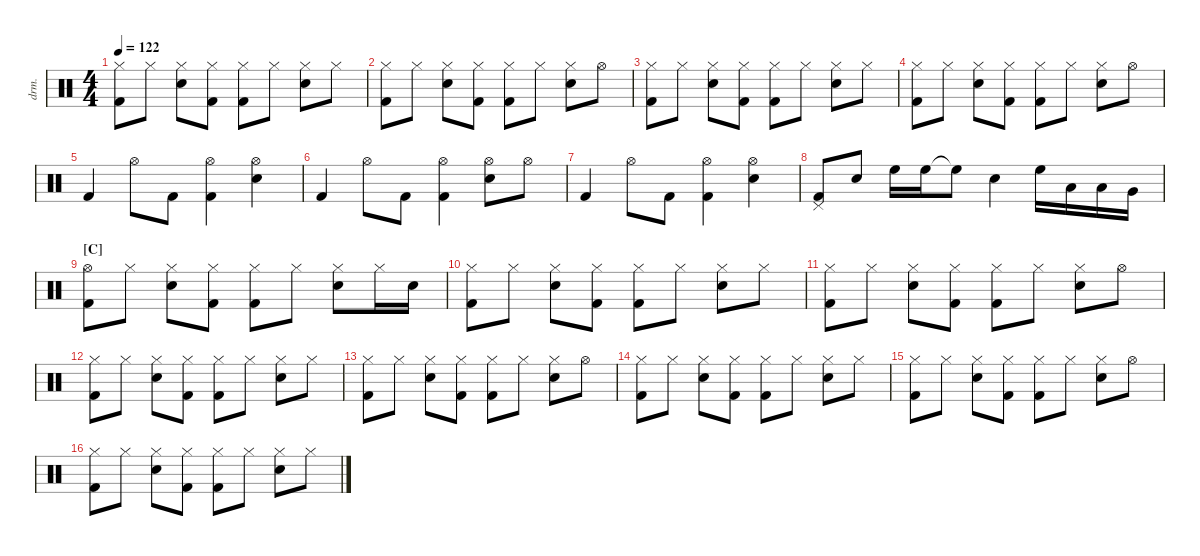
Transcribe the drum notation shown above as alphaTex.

\defaultSystemsLayout 4
\hideDynamics
\bracketExtendMode nobrackets
\track ("Drumkit" "drm.") {defaultSystemsLayout 4 instrument percussion}
\staff {score}
\articulation defaults
\ts (4 4)
\tempo 122
\clef neutral
\ks c
("Hi-Hat (closed)" "Kick (hit) 2").8{dy f} "Hi-Hat (closed)".8 ("Hi-Hat (closed)" "Snare (hit) 2").8 ("Hi-Hat (closed)" "Kick (hit) 2").8 ("Hi-Hat (closed)" "Kick (hit) 2").8 "Hi-Hat (closed)".8 ("Hi-Hat (closed)" "Snare (hit) 2").8 "Hi-Hat (closed)".8 |
("Hi-Hat (closed)" "Kick (hit) 2").8 "Hi-Hat (closed)".8 ("Hi-Hat (closed)" "Snare (hit) 2").8 ("Hi-Hat (closed)" "Kick (hit) 2").8 ("Hi-Hat (closed)" "Kick (hit) 2").8 "Hi-Hat (closed)".8 ("Hi-Hat (closed)" "Snare (hit) 2").8 "Hi-Hat (open)".8 |
("Hi-Hat (closed)" "Kick (hit) 2").8 "Hi-Hat (closed)".8 ("Hi-Hat (closed)" "Snare (hit) 2").8 ("Hi-Hat (closed)" "Kick (hit) 2").8 ("Hi-Hat (closed)" "Kick (hit) 2").8 "Hi-Hat (closed)".8 ("Hi-Hat (closed)" "Snare (hit) 2").8 "Hi-Hat (closed)".8 |
("Hi-Hat (closed)" "Kick (hit) 2").8 "Hi-Hat (closed)".8 ("Hi-Hat (closed)" "Snare (hit) 2").8 ("Hi-Hat (closed)" "Kick (hit) 2").8 ("Hi-Hat (closed)" "Kick (hit) 2").8 "Hi-Hat (closed)".8 ("Hi-Hat (closed)" "Snare (hit) 2").8 "Hi-Hat (open)".8 |
"Kick (hit) 2".4 "Hi-Hat (open)".8 "Kick (hit) 2".8 ("Hi-Hat (open)" "Kick (hit) 2").4 ("Hi-Hat (open)" "Snare (hit) 2").4 |
"Kick (hit) 2".4 "Hi-Hat (open)".8 "Kick (hit) 2".8 ("Hi-Hat (open)" "Kick (hit) 2").4 ("Hi-Hat (open)" "Snare (hit) 2").8 "Hi-Hat (open)".8 |
"Kick (hit) 2".4 "Hi-Hat (open)".8 "Kick (hit) 2".8 ("Hi-Hat (open)" "Kick (hit) 2").4 ("Hi-Hat (open)" "Snare (hit) 2").4 |
("Pedal Hi-Hat (hit)" "Kick (hit) 2").8 "Snare (hit) 2".8 "High Floor Tom (hit)".16 "High Floor Tom (hit)".16 "High Floor Tom (hit)"{t}.8 "Snare (hit) 2".4 "High Floor Tom (hit)".16 "Low Tom (hit)".16 "Low Tom (hit)".16 "Very Low Tom (hit)".16 |
\section ("C" "")
("Hi-Hat (open)" "Kick (hit) 2").8 "Hi-Hat (closed)".8 ("Hi-Hat (closed)" "Snare (hit) 2").8 ("Hi-Hat (closed)" "Kick (hit) 2").8 ("Hi-Hat (closed)" "Kick (hit) 2").8 "Hi-Hat (closed)".8 ("Hi-Hat (closed)" "Snare (hit) 2").8 "Hi-Hat (closed)".16 "Snare (hit) 2".16 |
("Hi-Hat (closed)" "Kick (hit) 2").8 "Hi-Hat (closed)".8 ("Hi-Hat (closed)" "Snare (hit) 2").8 ("Hi-Hat (closed)" "Kick (hit) 2").8 ("Hi-Hat (closed)" "Kick (hit) 2").8 "Hi-Hat (closed)".8 ("Hi-Hat (closed)" "Snare (hit) 2").8 "Hi-Hat (closed)".8 |
("Hi-Hat (closed)" "Kick (hit) 2").8 "Hi-Hat (closed)".8 ("Hi-Hat (closed)" "Snare (hit) 2").8 ("Hi-Hat (closed)" "Kick (hit) 2").8 ("Hi-Hat (closed)" "Kick (hit) 2").8 "Hi-Hat (closed)".8 ("Hi-Hat (closed)" "Snare (hit) 2").8 "Hi-Hat (open)".8 |
("Hi-Hat (closed)" "Kick (hit) 2").8 "Hi-Hat (closed)".8 ("Hi-Hat (closed)" "Snare (hit) 2").8 ("Hi-Hat (closed)" "Kick (hit) 2").8 ("Hi-Hat (closed)" "Kick (hit) 2").8 "Hi-Hat (closed)".8 ("Hi-Hat (closed)" "Snare (hit) 2").8 "Hi-Hat (closed)".8 |
("Hi-Hat (closed)" "Kick (hit) 2").8 "Hi-Hat (closed)".8 ("Hi-Hat (closed)" "Snare (hit) 2").8 ("Hi-Hat (closed)" "Kick (hit) 2").8 ("Hi-Hat (closed)" "Kick (hit) 2").8 "Hi-Hat (closed)".8 ("Hi-Hat (closed)" "Snare (hit) 2").8 "Hi-Hat (open)".8 |
("Hi-Hat (closed)" "Kick (hit) 2").8 "Hi-Hat (closed)".8 ("Hi-Hat (closed)" "Snare (hit) 2").8 ("Hi-Hat (closed)" "Kick (hit) 2").8 ("Hi-Hat (closed)" "Kick (hit) 2").8 "Hi-Hat (closed)".8 ("Hi-Hat (closed)" "Snare (hit) 2").8 "Hi-Hat (closed)".8 |
("Hi-Hat (closed)" "Kick (hit) 2").8 "Hi-Hat (closed)".8 ("Hi-Hat (closed)" "Snare (hit) 2").8 ("Hi-Hat (closed)" "Kick (hit) 2").8 ("Hi-Hat (closed)" "Kick (hit) 2").8 "Hi-Hat (closed)".8 ("Hi-Hat (closed)" "Snare (hit) 2").8 "Hi-Hat (open)".8 |
("Hi-Hat (closed)" "Kick (hit) 2").8 "Hi-Hat (closed)".8 ("Hi-Hat (closed)" "Snare (hit) 2").8 ("Hi-Hat (closed)" "Kick (hit) 2").8 ("Hi-Hat (closed)" "Kick (hit) 2").8 "Hi-Hat (closed)".8 ("Hi-Hat (closed)" "Snare (hit) 2").8 "Hi-Hat (closed)".8
